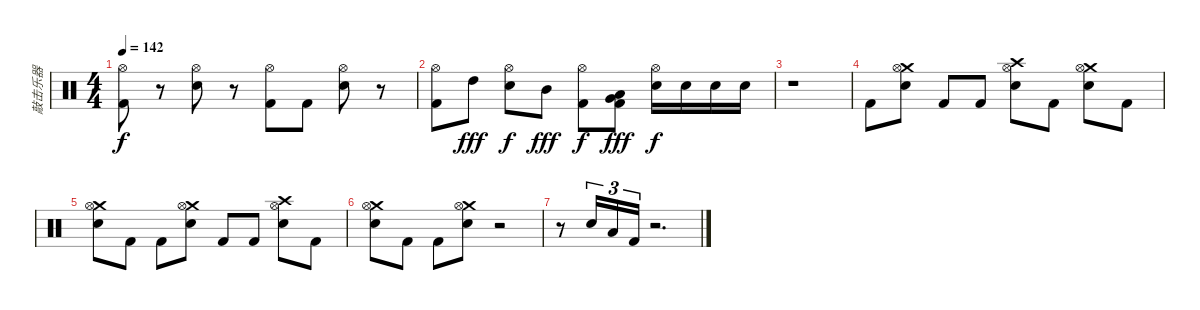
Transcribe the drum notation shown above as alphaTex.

\track ("敲击乐器" "敲击乐器") {instrument percussion}
\staff {score}
\articulation defaults
\ts (4 4)
\tempo 142
\clef neutral
\ks c
("Hi-Hat (open)" "Kick (hit) 2").8{dy f} r.8 ("Snare (hit) 2" "Hi-Hat (open)").8 r.8 ("Hi-Hat (open)" "Kick (hit) 2").8 "Kick (hit) 2".8 ("Snare (hit) 2" "Hi-Hat (open)").8 r.8 |
("Hi-Hat (open)" "Kick (hit) 2").8 "High Tom (hit)".8{dy fff} ("Snare (hit) 2" "Hi-Hat (open)").8{dy f} "Mid Tom (hit)".8{dy fff} ("Hi-Hat (open)" "Kick (hit) 2").8{dy f} ("Very Low Tom (hit)" "Low Floor Tom (hit)" "Kick (hit) 2").8{dy fff} ("Snare (hit) 2" "Hi-Hat (open)").16{dy f} "Snare (hit) 2".16 "Snare (hit) 2".16 "Snare (hit) 2".16 |
r.1 |
"Kick (hit) 2".8 ("Snare (hit) 2" "Crash medium (hit)" "Hi-Hat (open)").8 "Kick (hit) 2".8 "Kick (hit) 2".8 ("Snare (hit) 2" "Crash high (hit)" "Hi-Hat (open)").8 "Kick (hit) 2".8 ("Snare (hit) 2" "Crash medium (hit)" "Hi-Hat (open)").8 "Kick (hit) 2".8 |
("Snare (hit) 2" "Crash medium (hit)" "Hi-Hat (open)").8 "Kick (hit) 2".8 "Kick (hit) 2".8 ("Snare (hit) 2" "Crash medium (hit)" "Hi-Hat (open)").8 "Kick (hit) 2".8 "Kick (hit) 2".8 ("Snare (hit) 2" "Crash high (hit)" "Hi-Hat (open)").8 "Kick (hit) 2".8 |
("Snare (hit) 2" "Crash medium (hit)" "Hi-Hat (open)").8 "Kick (hit) 2".8 "Kick (hit) 2".8 ("Snare (hit) 2" "Crash medium (hit)" "Hi-Hat (open)").8 r.2 |
r.8 "Snare (hit) 2".16{tu (3 2)} "Low Floor Tom (hit)".16{tu (3 2)} "Kick (hit) 2".16{tu (3 2)} r.2{d}
